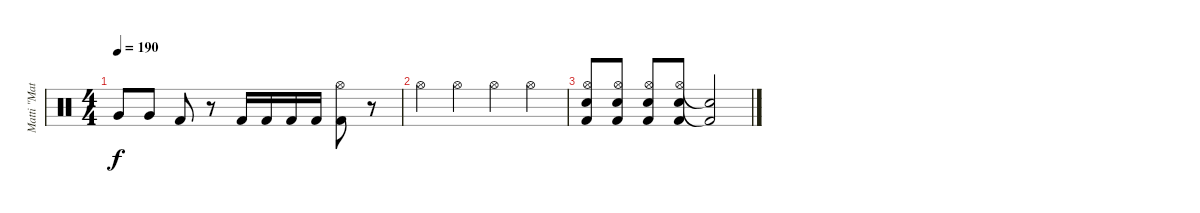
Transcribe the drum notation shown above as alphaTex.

\track ("Matti \"Matson\" Johansson" "Matti \"Mat") {instrument percussion}
\staff {score}
\articulation defaults
\ts (4 4)
\tempo 190
\clef neutral
\ks c "Very Low Tom (hit)".8{dy f} "Very Low Tom (hit)".8 "Kick (hit) 2".8
r.8 "Kick (hit) 2".16 "Kick (hit) 2".16 "Kick (hit) 2".16 "Kick (hit) 2".16 ("Hi-Hat (open)" "Kick (hit) 2").8 r.8 |
"Hi-Hat (open)".4 "Hi-Hat (open)".4 "Hi-Hat (open)".4 "Hi-Hat (open)".4 |
("Hi-Hat (open)" "Snare (hit) 2" "Kick (hit) 2").8 ("Hi-Hat (open)" "Snare (hit) 2" "Kick (hit) 2").8 ("Hi-Hat (open)" "Snare (hit) 2" "Kick (hit) 2").8 ("Hi-Hat (open)" "Snare (hit) 2" "Kick (hit) 2").8 ("Snare (hit) 2"{t} "Kick (hit) 2"{t}).2
